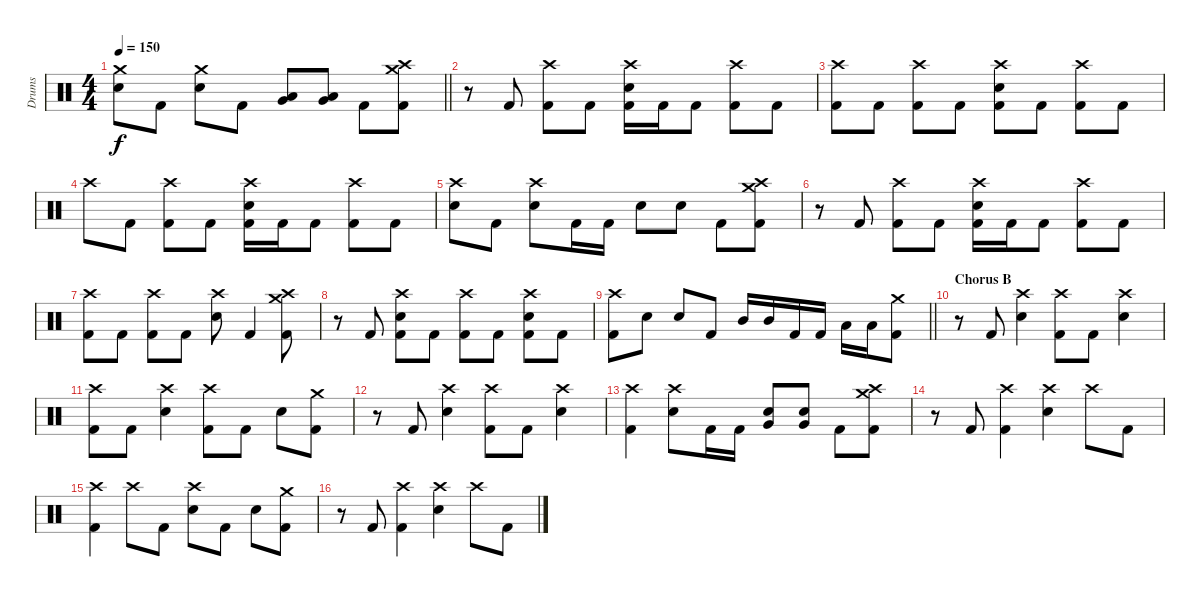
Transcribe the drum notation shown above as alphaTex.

\track ("Drums" "Drums") {instrument percussion}
\staff {score}
\articulation defaults
\ts (4 4)
\tempo 150
\clef neutral
\barLineRight lightlight
\ks c
("Crash medium (hit)" "Snare (hit) 2").8{dy f} "Kick (hit) 2".8 ("Crash medium (hit)" "Snare (hit) 2").8 "Kick (hit) 2".8 ("Low Tom (hit)" "Very Low Tom (hit)").8 ("Low Tom (hit)" "Very Low Tom (hit)").8 "Kick (hit) 2".8 ("Crash high (hit)" "Crash medium (hit)" "Kick (hit) 2").8 |
\section ("" "")
r.8 "Kick (hit) 2".8 ("Crash high (hit)" "Kick (hit) 2").8 "Kick (hit) 2".8 ("Crash high (hit)" "Snare (hit) 2" "Kick (hit) 2").16 "Kick (hit) 2".16 "Kick (hit) 2".8 ("Crash high (hit)" "Kick (hit) 2").8 "Kick (hit) 2".8 |
("Crash high (hit)" "Kick (hit) 2").8 "Kick (hit) 2".8 ("Crash high (hit)" "Kick (hit) 2").8 "Kick (hit) 2".8 ("Crash high (hit)" "Snare (hit) 2" "Kick (hit) 2").8 "Kick (hit) 2".8 ("Crash high (hit)" "Kick (hit) 2").8 "Kick (hit) 2".8 |
"Crash high (hit)".8 "Kick (hit) 2".8 ("Crash high (hit)" "Kick (hit) 2").8 "Kick (hit) 2".8 ("Crash high (hit)" "Snare (hit) 2" "Kick (hit) 2").16 "Kick (hit) 2".16 "Kick (hit) 2".8 ("Crash high (hit)" "Kick (hit) 2").8 "Kick (hit) 2".8 |
("Crash high (hit)" "Snare (hit) 2").8 "Kick (hit) 2".8 ("Crash high (hit)" "Snare (hit) 2").8 "Kick (hit) 2".16 "Kick (hit) 2".16 "Snare (hit) 2".8 "Snare (hit) 2".8 "Kick (hit) 2".8 ("Crash high (hit)" "Crash medium (hit)" "Kick (hit) 2").8 |
r.8 "Kick (hit) 2".8 ("Crash high (hit)" "Kick (hit) 2").8 "Kick (hit) 2".8 ("Crash high (hit)" "Snare (hit) 2" "Kick (hit) 2").16 "Kick (hit) 2".16 "Kick (hit) 2".8 ("Crash high (hit)" "Kick (hit) 2").8 "Kick (hit) 2".8 |
("Crash high (hit)" "Kick (hit) 2").8 "Kick (hit) 2".8 ("Crash high (hit)" "Kick (hit) 2").8 "Kick (hit) 2".8 ("Crash high (hit)" "Snare (hit) 2").8 "Kick (hit) 2".4 ("Crash high (hit)" "Crash medium (hit)" "Kick (hit) 2").8 |
r.8 "Kick (hit) 2".8 ("Crash high (hit)" "Snare (hit) 2" "Kick (hit) 2").8 "Kick (hit) 2".8 ("Crash high (hit)" "Kick (hit) 2").8 "Kick (hit) 2".8 ("Crash high (hit)" "Snare (hit) 2" "Kick (hit) 2").8 "Kick (hit) 2".8 |
\barLineRight lightlight
("Crash high (hit)" "Kick (hit) 2").8 "Snare (hit) 2".8 "Snare (hit) 2".8 "Kick (hit) 2".8 "Mid Tom (hit)".16 "Mid Tom (hit)".16 "Kick (hit) 2".16 "Kick (hit) 2".16 "Low Tom (hit)".16 "Low Tom (hit)".16 ("Crash medium (hit)" "Kick (hit) 2").8 |
\section ("" "Chorus B")
r.8 "Kick (hit) 2".8 ("Crash high (hit)" "Snare (hit) 2").4 ("Crash high (hit)" "Kick (hit) 2").8 "Kick (hit) 2".8 ("Crash high (hit)" "Snare (hit) 2").4 |
("Crash high (hit)" "Kick (hit) 2").8 "Kick (hit) 2".8 ("Crash high (hit)" "Snare (hit) 2").4 ("Crash high (hit)" "Kick (hit) 2").8 "Kick (hit) 2".8 "Snare (hit) 2".8 ("Crash medium (hit)" "Kick (hit) 2").8 |
r.8 "Kick (hit) 2".8 ("Crash high (hit)" "Snare (hit) 2").4 ("Crash high (hit)" "Kick (hit) 2").8 "Kick (hit) 2".8 ("Crash high (hit)" "Snare (hit) 2").4 |
("Crash high (hit)" "Kick (hit) 2").4 ("Crash high (hit)" "Snare (hit) 2").8 "Kick (hit) 2".16 "Kick (hit) 2".16 ("Snare (hit) 2" "Very Low Tom (hit)").8 ("Snare (hit) 2" "Very Low Tom (hit)").8 "Kick (hit) 2".8 ("Crash high (hit)" "Crash medium (hit)" "Kick (hit) 2").8 |
r.8 "Kick (hit) 2".8 ("Crash high (hit)" "Kick (hit) 2").4 ("Crash high (hit)" "Snare (hit) 2").4 "Crash high (hit)".8 "Kick (hit) 2".8 |
("Crash high (hit)" "Kick (hit) 2").4 "Crash high (hit)".8 "Kick (hit) 2".8 ("Crash high (hit)" "Snare (hit) 2").8 "Kick (hit) 2".8 "Snare (hit) 2".8 ("Crash medium (hit)" "Kick (hit) 2").8 |
r.8 "Kick (hit) 2".8 ("Crash high (hit)" "Kick (hit) 2").4 ("Crash high (hit)" "Snare (hit) 2").4 "Crash high (hit)".8 "Kick (hit) 2".8
